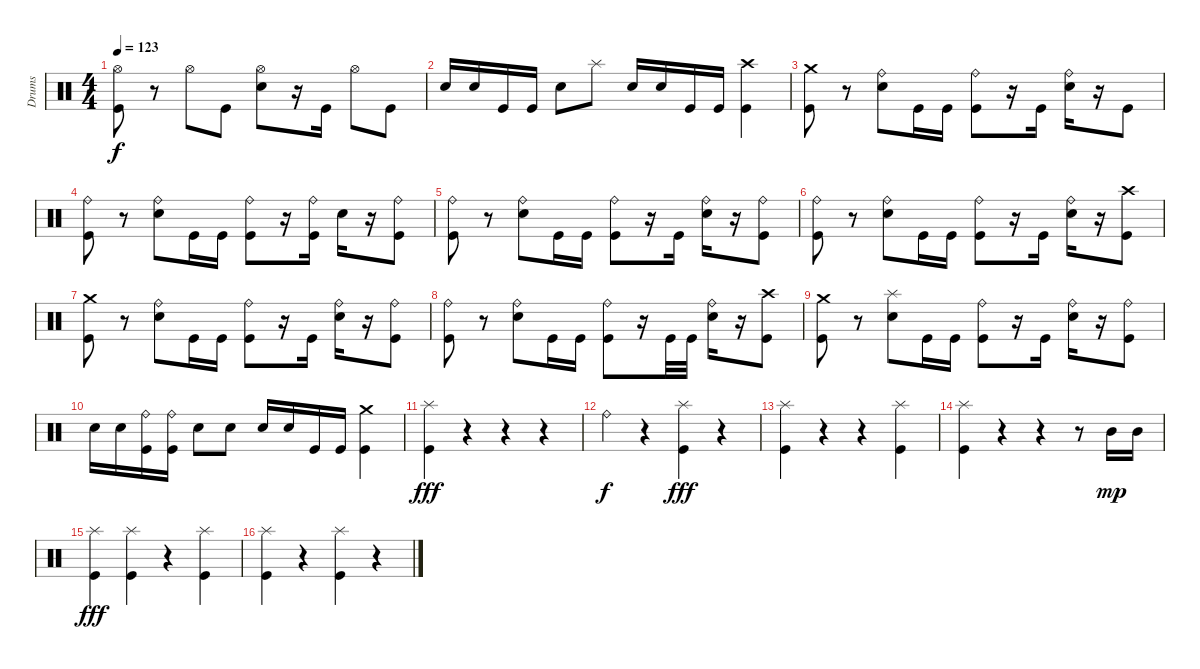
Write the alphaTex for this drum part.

\track ("Drums" "Drums") {instrument percussion}
\staff {score}
\articulation defaults
\ts (4 4)
\tempo 123
\clef neutral
\ks c
("Hi-Hat (open)" "Kick (hit)").8{dy f} r.8 "Hi-Hat (open)".8 "Kick (hit)".8 ("Hi-Hat (open)" "Electric Snare (hit)").8 r.16 "Kick (hit)".16 "Hi-Hat (open)".8 "Kick (hit)".8 |
"Electric Snare (hit)".16 "Electric Snare (hit)".16 "Kick (hit)".16 "Kick (hit)".16 "Electric Snare (hit)".8 "Splash (hit)".8 "Electric Snare (hit)".16 "Electric Snare (hit)".16 "Kick (hit)".16 "Kick (hit)".16 ("Crash high (hit)" "Kick (hit)").4 |
("Crash medium (hit)" "Kick (hit)").8 r.8 ("Ride (bell)" "Electric Snare (hit)").8 "Kick (hit)".16 "Kick (hit)".16 ("Ride (bell)" "Kick (hit)").8 r.16 "Kick (hit)".16 ("Ride (bell)" "Electric Snare (hit)").16 r.16 "Kick (hit)".8 |
("Ride (bell)" "Kick (hit)").8 r.8 ("Ride (bell)" "Electric Snare (hit)").8 "Kick (hit)".16 "Kick (hit)".16 ("Ride (bell)" "Kick (hit)").8 r.16 ("Ride (bell)" "Kick (hit)").16 "Electric Snare (hit)".16 r.16 ("Ride (bell)" "Kick (hit)").8 |
("Ride (bell)" "Kick (hit)").8 r.8 ("Ride (bell)" "Electric Snare (hit)").8 "Kick (hit)".16 "Kick (hit)".16 ("Ride (bell)" "Kick (hit)").8 r.16 "Kick (hit)".16 ("Ride (bell)" "Electric Snare (hit)").16 r.16 ("Ride (bell)" "Kick (hit)").8 |
("Ride (bell)" "Kick (hit)").8 r.8 ("Ride (bell)" "Electric Snare (hit)").8 "Kick (hit)".16 "Kick (hit)".16 ("Ride (bell)" "Kick (hit)").8 r.16 "Kick (hit)".16 ("Ride (bell)" "Electric Snare (hit)").16 r.16 ("Crash high (hit)" "Kick (hit)").8 |
("Crash medium (hit)" "Kick (hit)").8 r.8 ("Ride (bell)" "Electric Snare (hit)").8 "Kick (hit)".16 "Kick (hit)".16 ("Ride (bell)" "Kick (hit)").8 r.16 "Kick (hit)".16 ("Ride (bell)" "Electric Snare (hit)").16 r.16 ("Ride (bell)" "Kick (hit)").8 |
("Ride (bell)" "Kick (hit)").8 r.8 ("Ride (bell)" "Electric Snare (hit)").8 "Kick (hit)".16 "Kick (hit)".16 ("Ride (bell)" "Kick (hit)").8 r.16 "Kick (hit)".32 "Kick (hit)".32 ("Ride (bell)" "Electric Snare (hit)").16 r.16 ("Crash high (hit)" "Kick (hit)").8 |
("Crash medium (hit)" "Kick (hit)").8 r.8 ("Splash (hit)" "Electric Snare (hit)").8 "Kick (hit)".16 "Kick (hit)".16 ("Ride (bell)" "Kick (hit)").8 r.16 "Kick (hit)".16 ("Ride (bell)" "Electric Snare (hit)").16 r.16 ("Ride (bell)" "Kick (hit)").8 |
"Electric Snare (hit)".16 "Electric Snare (hit)".16 ("Ride (bell)" "Kick (hit)").16 ("Ride (bell)" "Kick (hit)").16 "Electric Snare (hit)".8 "Electric Snare (hit)".8 "Electric Snare (hit)".16 "Electric Snare (hit)".16 "Kick (hit)".16 "Kick (hit)".16 ("Crash medium (hit)" "Kick (hit)").4 |
("Splash (hit)" "Kick (hit)").4{dy fff} r.4 r.4 r.4 |
"Ride (bell)".4{dy f} r.4 ("Splash (hit)" "Kick (hit)").4{dy fff} r.4 |
("Splash (hit)" "Kick (hit)").4 r.4 r.4 ("Splash (hit)" "Kick (hit)").4 |
("Splash (hit)" "Kick (hit)").4 r.4 r.4 r.8 "Mid Tom (hit)".16{dy mp} "Mid Tom (hit)".16 |
("Splash (hit)" "Kick (hit)").4{dy fff} ("Splash (hit)" "Kick (hit)").4 r.4 ("Splash (hit)" "Kick (hit)").4 |
("Splash (hit)" "Kick (hit)").4 r.4 ("Splash (hit)" "Kick (hit)").4 r.4
